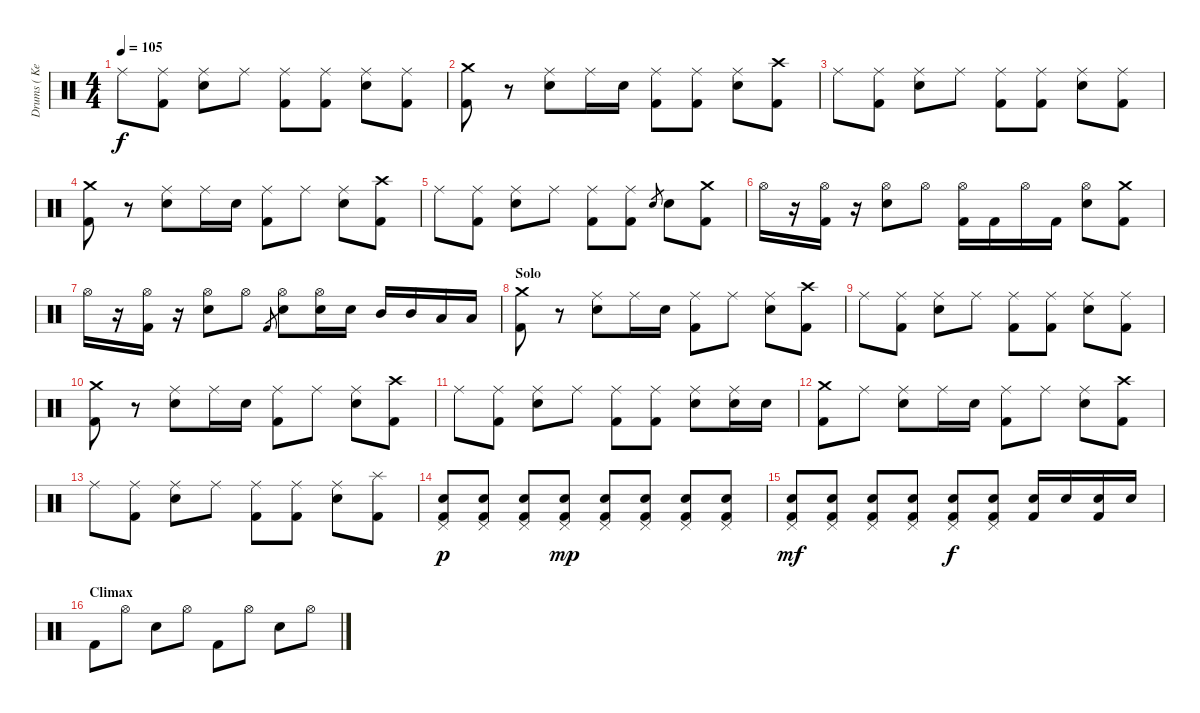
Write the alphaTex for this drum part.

\track ("Drums ( Kevin Miller )" "Drums ( Ke") {instrument percussion}
\staff {score}
\articulation defaults
\ts (4 4)
\tempo 105
\clef neutral
\ks c "Ride (middle)".8{dy f}
("Ride (middle)" "Kick (hit) 2").8 ("Ride (middle)" "Snare (hit) 2").8 "Ride (middle)".8 ("Ride (middle)" "Kick (hit) 2").8 ("Ride (middle)" "Kick (hit) 2").8 ("Ride (middle)" "Snare (hit) 2").8 ("Ride (middle)" "Kick (hit) 2").8 |
("Crash medium (hit)" "Kick (hit) 2").8 r.8 ("Ride (middle)" "Snare (hit) 2").8 "Ride (middle)".16 "Snare (hit) 2".16 ("Ride (middle)" "Kick (hit) 2").8 ("Ride (middle)" "Kick (hit) 2").8 ("Ride (middle)" "Snare (hit) 2").8 ("Crash high (hit)" "Kick (hit) 2").8 |
"Ride (middle)".8 ("Ride (middle)" "Kick (hit) 2").8 ("Ride (middle)" "Snare (hit) 2").8 "Ride (middle)".8 ("Ride (middle)" "Kick (hit) 2").8 ("Ride (middle)" "Kick (hit) 2").8 ("Ride (middle)" "Snare (hit) 2").8 ("Ride (middle)" "Kick (hit) 2").8 |
("Crash medium (hit)" "Kick (hit) 2").8 r.8 ("Ride (middle)" "Snare (hit) 2").8 "Ride (middle)".16 "Snare (hit) 2".16 ("Ride (middle)" "Kick (hit) 2").8 "Ride (middle)".8 ("Ride (middle)" "Snare (hit) 2").8 ("Crash high (hit)" "Kick (hit) 2").8 |
"Ride (middle)".8 ("Ride (middle)" "Kick (hit) 2").8 ("Ride (middle)" "Snare (hit) 2").8 "Ride (middle)".8 ("Ride (middle)" "Kick (hit) 2").8 ("Ride (middle)" "Kick (hit) 2").8 "Snare (hit) 2".8{gr} "Snare (hit) 2".8 ("Crash medium (hit)" "Kick (hit) 2").8 |
"Hi-Hat (open)".16 r.16 ("Hi-Hat (open)" "Kick (hit) 2").16 r.16 ("Hi-Hat (open)" "Snare (hit) 2").8 "Hi-Hat (open)".8 ("Hi-Hat (open)" "Kick (hit) 2").16 "Kick (hit) 2".16 "Hi-Hat (open)".16 "Kick (hit) 2".16 ("Hi-Hat (open)" "Snare (hit) 2").8 ("Crash medium (hit)" "Kick (hit) 2").8 |
"Hi-Hat (open)".16 r.16 ("Hi-Hat (open)" "Kick (hit) 2").16 r.16 ("Hi-Hat (open)" "Snare (hit) 2").8 "Hi-Hat (open)".8 "Kick (hit) 2".8{gr} ("Hi-Hat (open)" "Snare (hit) 2").8 ("Hi-Hat (open)" "Snare (hit) 2").16 "Snare (hit) 2".16 "Mid Tom (hit)".16 "Mid Tom (hit)".16 "Low Tom (hit)".16 "Low Tom (hit)".16 |
\section ("" "Solo")
("Crash medium (hit)" "Kick (hit) 2").8 r.8 ("Ride (middle)" "Snare (hit) 2").8 "Ride (middle)".16 "Snare (hit) 2".16 ("Ride (middle)" "Kick (hit) 2").8 "Ride (middle)".8 ("Ride (middle)" "Snare (hit) 2").8 ("Crash high (hit)" "Kick (hit) 2").8 |
"Ride (middle)".8 ("Ride (middle)" "Kick (hit) 2").8 ("Ride (middle)" "Snare (hit) 2").8 "Ride (middle)".8 ("Ride (middle)" "Kick (hit) 2").8 ("Ride (middle)" "Kick (hit) 2").8 ("Ride (middle)" "Snare (hit) 2").8 ("Ride (middle)" "Kick (hit) 2").8 |
("Crash medium (hit)" "Kick (hit) 2").8 r.8 ("Ride (middle)" "Snare (hit) 2").8 "Ride (middle)".16 "Snare (hit) 2".16 ("Ride (middle)" "Kick (hit) 2").8 "Ride (middle)".8 ("Ride (middle)" "Snare (hit) 2").8 ("Crash high (hit)" "Kick (hit) 2").8 |
"Ride (middle)".8 ("Ride (middle)" "Kick (hit) 2").8 ("Ride (middle)" "Snare (hit) 2").8 "Ride (middle)".8 ("Ride (middle)" "Kick (hit) 2").8 ("Ride (middle)" "Kick (hit) 2").8 ("Ride (middle)" "Snare (hit) 2").8 ("Ride (middle)" "Snare (hit) 2").16 "Snare (hit) 2".16 |
("Crash medium (hit)" "Kick (hit) 2").8 "Ride (middle)".8 ("Ride (middle)" "Snare (hit) 2").8 "Ride (middle)".16 "Snare (hit) 2".16 ("Ride (middle)" "Kick (hit) 2").8 "Ride (middle)".8 ("Ride (middle)" "Snare (hit) 2").8 ("Crash high (hit)" "Kick (hit) 2").8 |
"Ride (middle)".8 ("Ride (middle)" "Kick (hit) 2").8 ("Ride (middle)" "Snare (hit) 2").8 "Ride (middle)".8 ("Ride (middle)" "Kick (hit) 2").8 ("Ride (middle)" "Kick (hit) 2").8 ("Ride (middle)" "Snare (hit) 2").8 ("Splash (hit)" "Kick (hit) 2").8 |
("Pedal Hi-Hat (hit)" "Snare (hit) 2" "Kick (hit) 2").8{dy p} ("Pedal Hi-Hat (hit)" "Snare (hit) 2" "Kick (hit) 2").8 ("Pedal Hi-Hat (hit)" "Snare (hit) 2" "Kick (hit) 2").8 ("Pedal Hi-Hat (hit)" "Snare (hit) 2" "Kick (hit) 2").8{dy mp} ("Pedal Hi-Hat (hit)" "Snare (hit) 2" "Kick (hit) 2").8 ("Pedal Hi-Hat (hit)" "Snare (hit) 2" "Kick (hit) 2").8 ("Pedal Hi-Hat (hit)" "Snare (hit) 2" "Kick (hit) 2").8 ("Pedal Hi-Hat (hit)" "Snare (hit) 2" "Kick (hit) 2").8 |
("Pedal Hi-Hat (hit)" "Snare (hit) 2" "Kick (hit) 2").8{dy mf} ("Pedal Hi-Hat (hit)" "Snare (hit) 2" "Kick (hit) 2").8 ("Pedal Hi-Hat (hit)" "Snare (hit) 2" "Kick (hit) 2").8 ("Pedal Hi-Hat (hit)" "Snare (hit) 2" "Kick (hit) 2").8 ("Pedal Hi-Hat (hit)" "Snare (hit) 2" "Kick (hit) 2").8{dy f} ("Pedal Hi-Hat (hit)" "Snare (hit) 2" "Kick (hit) 2").8 ("Snare (hit) 2" "Kick (hit) 2").16 "Snare (hit) 2".16 ("Snare (hit) 2" "Kick (hit) 2").16 "Snare (hit) 2".16 |
\section ("" "Climax")
"Kick (hit) 2".8 "Hi-Hat (open)".8 "Snare (hit) 2".8 "Hi-Hat (open)".8 "Kick (hit) 2".8 "Hi-Hat (open)".8 "Snare (hit) 2".8 "Hi-Hat (open)".8
